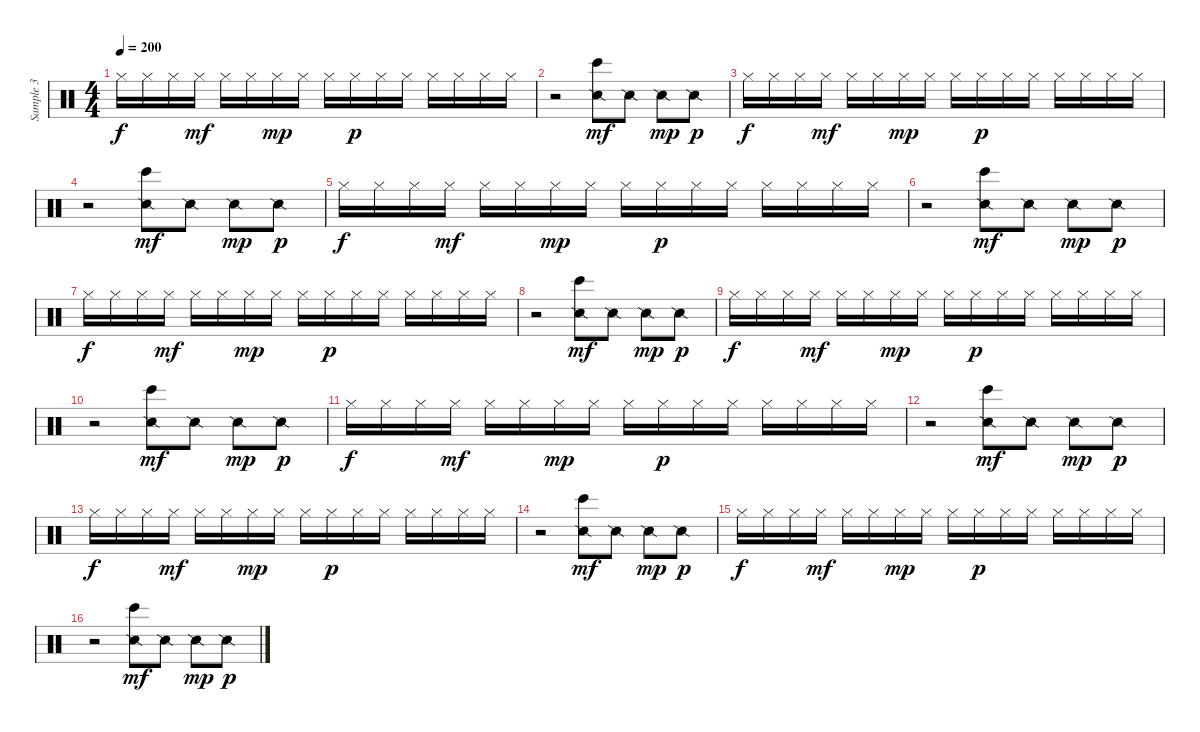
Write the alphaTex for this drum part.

\track ("Sample 3" "Sample 3") {instrument percussion}
\staff {score}
\articulation defaults
\ts (4 4)
\tempo 200
\clef neutral
\ks c "Hi-Hat (closed)".16{dy f} "Hi-Hat (closed)".16 "Hi-Hat (closed)".16 "Hi-Hat (closed)".16{dy mf} "Hi-Hat (closed)".16 "Hi-Hat (closed)".16 "Hi-Hat (closed)".16{dy mp} "Hi-Hat (closed)".16 "Hi-Hat (closed)".16 "Hi-Hat (closed)".16{dy p} "Hi-Hat (closed)".16 "Hi-Hat (closed)".16 "Hi-Hat (closed)".16 "Hi-Hat (closed)".16 "Hi-Hat (closed)".16 "Hi-Hat (closed)".16
|
r.2 ("Snare (side stick) 2" "Bongo High (hit)").8{dy mf} "Snare (side stick) 2".8 "Snare (side stick) 2".8{dy mp} "Snare (side stick) 2".8{dy p} |
"Hi-Hat (closed)".16{dy f} "Hi-Hat (closed)".16 "Hi-Hat (closed)".16 "Hi-Hat (closed)".16{dy mf} "Hi-Hat (closed)".16 "Hi-Hat (closed)".16 "Hi-Hat (closed)".16{dy mp} "Hi-Hat (closed)".16 "Hi-Hat (closed)".16 "Hi-Hat (closed)".16{dy p} "Hi-Hat (closed)".16 "Hi-Hat (closed)".16 "Hi-Hat (closed)".16 "Hi-Hat (closed)".16 "Hi-Hat (closed)".16 "Hi-Hat (closed)".16 |
r.2 ("Snare (side stick) 2" "Bongo High (hit)").8{dy mf} "Snare (side stick) 2".8 "Snare (side stick) 2".8{dy mp} "Snare (side stick) 2".8{dy p} |
"Hi-Hat (closed)".16{dy f} "Hi-Hat (closed)".16 "Hi-Hat (closed)".16 "Hi-Hat (closed)".16{dy mf} "Hi-Hat (closed)".16 "Hi-Hat (closed)".16 "Hi-Hat (closed)".16{dy mp} "Hi-Hat (closed)".16 "Hi-Hat (closed)".16 "Hi-Hat (closed)".16{dy p} "Hi-Hat (closed)".16 "Hi-Hat (closed)".16 "Hi-Hat (closed)".16 "Hi-Hat (closed)".16 "Hi-Hat (closed)".16 "Hi-Hat (closed)".16 |
r.2 ("Snare (side stick) 2" "Bongo High (hit)").8{dy mf} "Snare (side stick) 2".8 "Snare (side stick) 2".8{dy mp} "Snare (side stick) 2".8{dy p} |
"Hi-Hat (closed)".16{dy f} "Hi-Hat (closed)".16 "Hi-Hat (closed)".16 "Hi-Hat (closed)".16{dy mf} "Hi-Hat (closed)".16 "Hi-Hat (closed)".16 "Hi-Hat (closed)".16{dy mp} "Hi-Hat (closed)".16 "Hi-Hat (closed)".16 "Hi-Hat (closed)".16{dy p} "Hi-Hat (closed)".16 "Hi-Hat (closed)".16 "Hi-Hat (closed)".16 "Hi-Hat (closed)".16 "Hi-Hat (closed)".16 "Hi-Hat (closed)".16 |
r.2 ("Snare (side stick) 2" "Bongo High (hit)").8{dy mf} "Snare (side stick) 2".8 "Snare (side stick) 2".8{dy mp} "Snare (side stick) 2".8{dy p} |
"Hi-Hat (closed)".16{dy f} "Hi-Hat (closed)".16 "Hi-Hat (closed)".16 "Hi-Hat (closed)".16{dy mf} "Hi-Hat (closed)".16 "Hi-Hat (closed)".16 "Hi-Hat (closed)".16{dy mp} "Hi-Hat (closed)".16 "Hi-Hat (closed)".16 "Hi-Hat (closed)".16{dy p} "Hi-Hat (closed)".16 "Hi-Hat (closed)".16 "Hi-Hat (closed)".16 "Hi-Hat (closed)".16 "Hi-Hat (closed)".16 "Hi-Hat (closed)".16 |
r.2 ("Snare (side stick) 2" "Bongo High (hit)").8{dy mf} "Snare (side stick) 2".8 "Snare (side stick) 2".8{dy mp} "Snare (side stick) 2".8{dy p} |
"Hi-Hat (closed)".16{dy f} "Hi-Hat (closed)".16 "Hi-Hat (closed)".16 "Hi-Hat (closed)".16{dy mf} "Hi-Hat (closed)".16 "Hi-Hat (closed)".16 "Hi-Hat (closed)".16{dy mp} "Hi-Hat (closed)".16 "Hi-Hat (closed)".16 "Hi-Hat (closed)".16{dy p} "Hi-Hat (closed)".16 "Hi-Hat (closed)".16 "Hi-Hat (closed)".16 "Hi-Hat (closed)".16 "Hi-Hat (closed)".16 "Hi-Hat (closed)".16 |
r.2 ("Snare (side stick) 2" "Bongo High (hit)").8{dy mf} "Snare (side stick) 2".8 "Snare (side stick) 2".8{dy mp} "Snare (side stick) 2".8{dy p} |
"Hi-Hat (closed)".16{dy f} "Hi-Hat (closed)".16 "Hi-Hat (closed)".16 "Hi-Hat (closed)".16{dy mf} "Hi-Hat (closed)".16 "Hi-Hat (closed)".16 "Hi-Hat (closed)".16{dy mp} "Hi-Hat (closed)".16 "Hi-Hat (closed)".16 "Hi-Hat (closed)".16{dy p} "Hi-Hat (closed)".16 "Hi-Hat (closed)".16 "Hi-Hat (closed)".16 "Hi-Hat (closed)".16 "Hi-Hat (closed)".16 "Hi-Hat (closed)".16 |
r.2 ("Snare (side stick) 2" "Bongo High (hit)").8{dy mf} "Snare (side stick) 2".8 "Snare (side stick) 2".8{dy mp} "Snare (side stick) 2".8{dy p} |
"Hi-Hat (closed)".16{dy f} "Hi-Hat (closed)".16 "Hi-Hat (closed)".16 "Hi-Hat (closed)".16{dy mf} "Hi-Hat (closed)".16 "Hi-Hat (closed)".16 "Hi-Hat (closed)".16{dy mp} "Hi-Hat (closed)".16 "Hi-Hat (closed)".16 "Hi-Hat (closed)".16{dy p} "Hi-Hat (closed)".16 "Hi-Hat (closed)".16 "Hi-Hat (closed)".16 "Hi-Hat (closed)".16 "Hi-Hat (closed)".16 "Hi-Hat (closed)".16 |
r.2 ("Snare (side stick) 2" "Bongo High (hit)").8{dy mf} "Snare (side stick) 2".8 "Snare (side stick) 2".8{dy mp} "Snare (side stick) 2".8{dy p}
